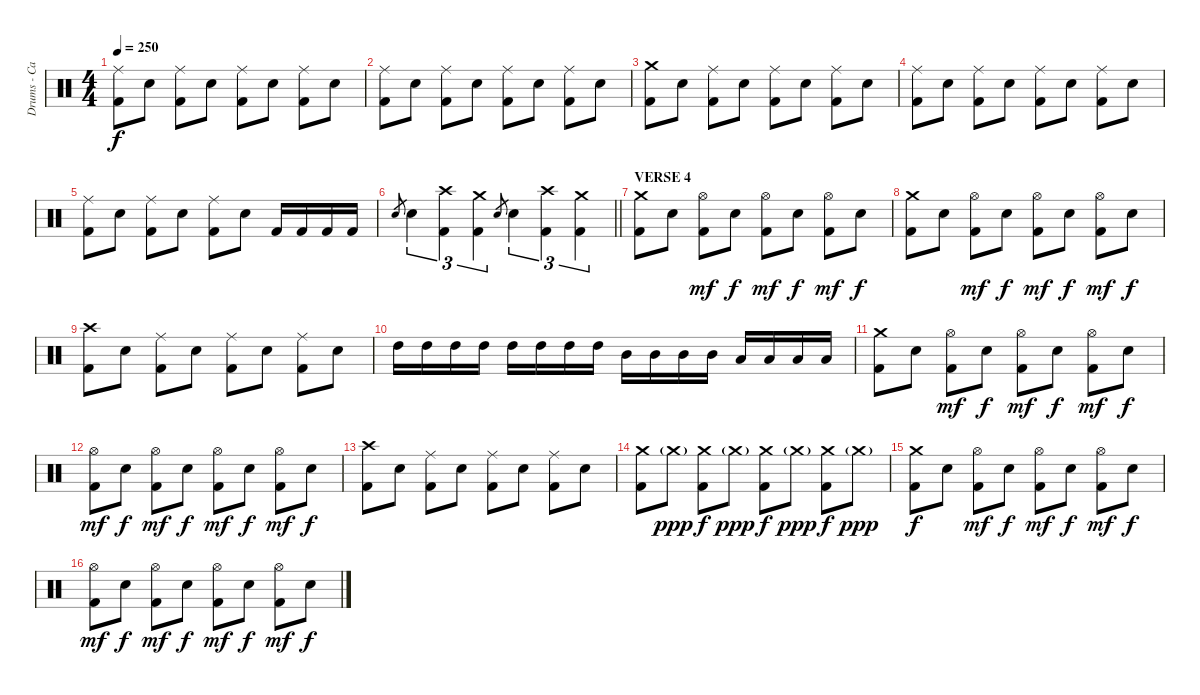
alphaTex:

\track ("Drums - Carlos Cruz" "Drums - Ca") {instrument percussion}
\staff {score}
\articulation defaults
\ts (4 4)
\tempo 250
\clef neutral
\ks c
("Ride (middle)" "Kick (hit) 2").8{dy f} "Snare (hit) 2".8 ("Ride (middle)" "Kick (hit) 2").8 "Snare (hit) 2".8 ("Ride (middle)" "Kick (hit) 2").8 "Snare (hit) 2".8 ("Ride (middle)" "Kick (hit) 2").8 "Snare (hit) 2".8 |
("Ride (middle)" "Kick (hit) 2").8 "Snare (hit) 2".8 ("Ride (middle)" "Kick (hit) 2").8 "Snare (hit) 2".8 ("Ride (middle)" "Kick (hit) 2").8 "Snare (hit) 2".8 ("Ride (middle)" "Kick (hit) 2").8 "Snare (hit) 2".8 |
("Crash medium (hit)" "Kick (hit) 2").8 "Snare (hit) 2".8 ("Ride (middle)" "Kick (hit) 2").8 "Snare (hit) 2".8 ("Ride (middle)" "Kick (hit) 2").8 "Snare (hit) 2".8 ("Ride (middle)" "Kick (hit) 2").8 "Snare (hit) 2".8 |
("Ride (middle)" "Kick (hit) 2").8 "Snare (hit) 2".8 ("Ride (middle)" "Kick (hit) 2").8 "Snare (hit) 2".8 ("Ride (middle)" "Kick (hit) 2").8 "Snare (hit) 2".8 ("Ride (middle)" "Kick (hit) 2").8 "Snare (hit) 2".8 |
("Ride (middle)" "Kick (hit) 2").8 "Snare (hit) 2".8 ("Ride (middle)" "Kick (hit) 2").8 "Snare (hit) 2".8 ("Ride (middle)" "Kick (hit) 2").8 "Snare (hit) 2".8 "Kick (hit) 2".16 "Kick (hit) 2".16 "Kick (hit) 2".16 "Kick (hit) 2".16 |
\barLineRight lightlight "Snare (hit) 2".8{gr} "Snare (hit) 2".4{tu (3 2)}
("Crash high (hit)" "Kick (hit) 2").4{tu (3 2)} ("Crash medium (hit)" "Kick (hit) 2").4{tu (3 2)} "Snare (hit) 2".8{gr} "Snare (hit) 2".4{tu (3 2)} ("Crash high (hit)" "Kick (hit) 2").4{tu (3 2)} ("Crash medium (hit)" "Kick (hit) 2").4{tu (3 2)} |
\section ("" "VERSE 4")
("Crash medium (hit)" "Kick (hit) 2").8 "Snare (hit) 2".8 ("Hi-Hat (open)" "Kick (hit) 2").8{dy mf} "Snare (hit) 2".8{dy f} ("Hi-Hat (open)" "Kick (hit) 2").8{dy mf} "Snare (hit) 2".8{dy f} ("Hi-Hat (open)" "Kick (hit) 2").8{dy mf} "Snare (hit) 2".8{dy f} |
("Crash medium (hit)" "Kick (hit) 2").8 "Snare (hit) 2".8 ("Hi-Hat (open)" "Kick (hit) 2").8{dy mf} "Snare (hit) 2".8{dy f} ("Hi-Hat (open)" "Kick (hit) 2").8{dy mf} "Snare (hit) 2".8{dy f} ("Hi-Hat (open)" "Kick (hit) 2").8{dy mf} "Snare (hit) 2".8{dy f} |
("Crash high (hit)" "Kick (hit) 2").8 "Snare (hit) 2".8 ("Ride (middle)" "Kick (hit) 2").8 "Snare (hit) 2".8 ("Ride (middle)" "Kick (hit) 2").8 "Snare (hit) 2".8 ("Ride (middle)" "Kick (hit) 2").8 "Snare (hit) 2".8 |
"High Tom (hit)".16 "High Tom (hit)".16 "High Tom (hit)".16 "High Tom (hit)".16 "High Tom (hit)".16 "High Tom (hit)".16 "High Tom (hit)".16 "High Tom (hit)".16 "Mid Tom (hit)".16 "Mid Tom (hit)".16 "Mid Tom (hit)".16 "Mid Tom (hit)".16 "Low Tom (hit)".16 "Low Tom (hit)".16 "Low Tom (hit)".16 "Low Tom (hit)".16 |
("Crash medium (hit)" "Kick (hit) 2").8 "Snare (hit) 2".8 ("Hi-Hat (open)" "Kick (hit) 2").8{dy mf} "Snare (hit) 2".8{dy f} ("Hi-Hat (open)" "Kick (hit) 2").8{dy mf} "Snare (hit) 2".8{dy f} ("Hi-Hat (open)" "Kick (hit) 2").8{dy mf} "Snare (hit) 2".8{dy f} |
("Hi-Hat (open)" "Kick (hit) 2").8{dy mf} "Snare (hit) 2".8{dy f} ("Hi-Hat (open)" "Kick (hit) 2").8{dy mf} "Snare (hit) 2".8{dy f} ("Hi-Hat (open)" "Kick (hit) 2").8{dy mf} "Snare (hit) 2".8{dy f} ("Hi-Hat (open)" "Kick (hit) 2").8{dy mf} "Snare (hit) 2".8{dy f} |
("Crash high (hit)" "Kick (hit) 2").8 "Snare (hit) 2".8 ("Ride (middle)" "Kick (hit) 2").8 "Snare (hit) 2".8 ("Ride (middle)" "Kick (hit) 2").8 "Snare (hit) 2".8 ("Ride (middle)" "Kick (hit) 2").8 "Snare (hit) 2".8 |
("Crash medium (hit)" "Kick (hit) 2").8 "Crash medium (hit)"{g}.8{dy ppp} ("Crash medium (hit)" "Kick (hit) 2").8{dy f} "Crash medium (hit)"{g}.8{dy ppp} ("Crash medium (hit)" "Kick (hit) 2").8{dy f} "Crash medium (hit)"{g}.8{dy ppp} ("Crash medium (hit)" "Kick (hit) 2").8{dy f} "Crash medium (hit)"{g}.8{dy ppp} |
("Crash medium (hit)" "Kick (hit) 2").8{dy f} "Snare (hit) 2".8 ("Hi-Hat (open)" "Kick (hit) 2").8{dy mf} "Snare (hit) 2".8{dy f} ("Hi-Hat (open)" "Kick (hit) 2").8{dy mf} "Snare (hit) 2".8{dy f} ("Hi-Hat (open)" "Kick (hit) 2").8{dy mf} "Snare (hit) 2".8{dy f} |
("Hi-Hat (open)" "Kick (hit) 2").8{dy mf} "Snare (hit) 2".8{dy f} ("Hi-Hat (open)" "Kick (hit) 2").8{dy mf} "Snare (hit) 2".8{dy f} ("Hi-Hat (open)" "Kick (hit) 2").8{dy mf} "Snare (hit) 2".8{dy f} ("Hi-Hat (open)" "Kick (hit) 2").8{dy mf} "Snare (hit) 2".8{dy f}
